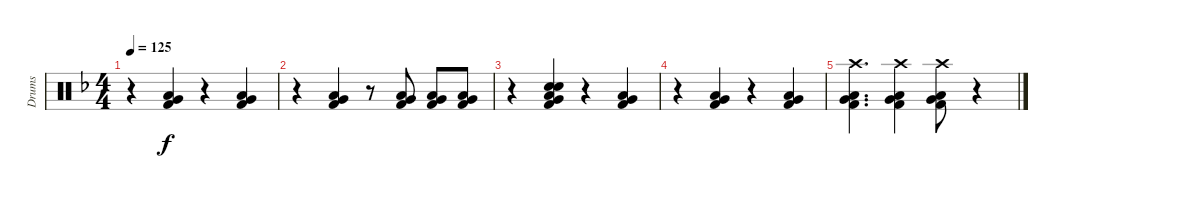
\track ("Drums" "Drums") {instrument percussion}
\staff {score}
\articulation defaults
\ts (4 4)
\tempo 125
\clef neutral
\ks f
r.4{dy f} ("Very Low Tom (hit)" "Low Floor Tom (hit)" "Kick (hit) 2").4 r.4 ("Very Low Tom (hit)" "Low Floor Tom (hit)" "Kick (hit) 2").4 |
r.4 ("Very Low Tom (hit)" "Low Floor Tom (hit)" "Kick (hit) 2").4 r.8 ("Very Low Tom (hit)" "Low Floor Tom (hit)" "Kick (hit) 2").8 ("Very Low Tom (hit)" "Low Floor Tom (hit)" "Kick (hit) 2").8 ("Very Low Tom (hit)" "Low Floor Tom (hit)" "Kick (hit) 2").8 |
r.4 ("Electric Snare (hit)" "Snare (hit) 2" "Very Low Tom (hit)" "Low Floor Tom (hit)" "Kick (hit) 2").4 r.4 ("Very Low Tom (hit)" "Low Floor Tom (hit)" "Kick (hit) 2").4 |
r.4 ("Very Low Tom (hit)" "Low Floor Tom (hit)" "Kick (hit) 2").4 r.4 ("Very Low Tom (hit)" "Low Floor Tom (hit)" "Kick (hit) 2").4 |
("Crash high (hit)" "Very Low Tom (hit)" "Low Floor Tom (hit)" "Kick (hit) 2").4{d} ("Crash high (hit)" "Very Low Tom (hit)" "Low Floor Tom (hit)" "Kick (hit) 2").4 ("Crash high (hit)" "Very Low Tom (hit)" "Low Floor Tom (hit)" "Kick (hit) 2").8 r.4
